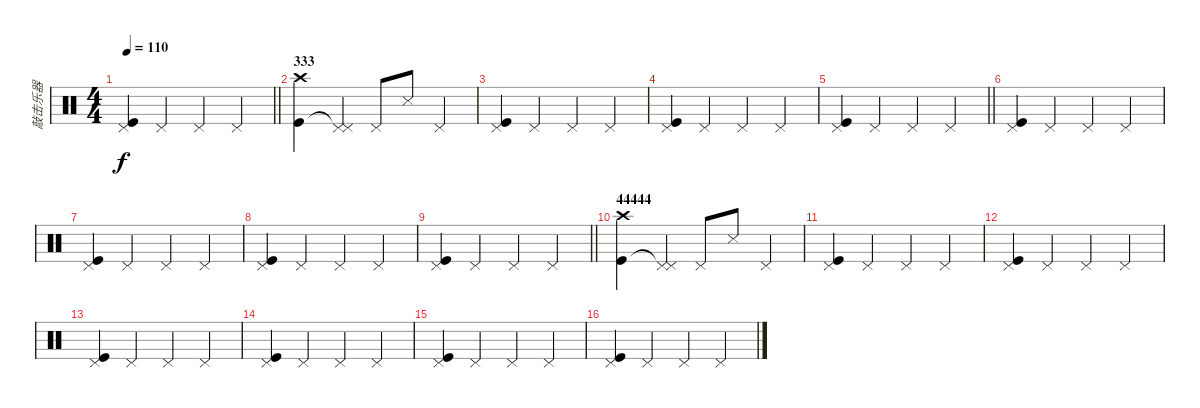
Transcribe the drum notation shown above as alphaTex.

\track ("敲击乐器" "敲击乐器") {instrument percussion}
\staff {score}
\articulation defaults
\ts (4 4)
\tempo 110
\clef neutral
\barLineRight lightlight
\ks c
("Pedal Hi-Hat (hit)" "Kick (hit)").4{dy f} "Pedal Hi-Hat (hit)".4 "Pedal Hi-Hat (hit)".4 "Pedal Hi-Hat (hit)".4 |
\section ("" "333")
("Crash high (hit)" "Kick (hit)").4 ("Pedal Hi-Hat (hit)" "Pedal Hi-Hat (hit)"{t}).4 "Pedal Hi-Hat (hit)".8 "Snare (side stick) 3".8 "Pedal Hi-Hat (hit)".4 |
("Pedal Hi-Hat (hit)" "Kick (hit)").4 "Pedal Hi-Hat (hit)".4 "Pedal Hi-Hat (hit)".4 "Pedal Hi-Hat (hit)".4 |
("Pedal Hi-Hat (hit)" "Kick (hit)").4 "Pedal Hi-Hat (hit)".4 "Pedal Hi-Hat (hit)".4 "Pedal Hi-Hat (hit)".4 |
\barLineRight lightlight
("Pedal Hi-Hat (hit)" "Kick (hit)").4 "Pedal Hi-Hat (hit)".4 "Pedal Hi-Hat (hit)".4 "Pedal Hi-Hat (hit)".4 |
\section ("" " ")
("Pedal Hi-Hat (hit)" "Kick (hit)").4 "Pedal Hi-Hat (hit)".4 "Pedal Hi-Hat (hit)".4 "Pedal Hi-Hat (hit)".4 |
("Pedal Hi-Hat (hit)" "Kick (hit)").4 "Pedal Hi-Hat (hit)".4 "Pedal Hi-Hat (hit)".4 "Pedal Hi-Hat (hit)".4 |
("Pedal Hi-Hat (hit)" "Kick (hit)").4 "Pedal Hi-Hat (hit)".4 "Pedal Hi-Hat (hit)".4 "Pedal Hi-Hat (hit)".4 |
\barLineRight lightlight
("Pedal Hi-Hat (hit)" "Kick (hit)").4 "Pedal Hi-Hat (hit)".4 "Pedal Hi-Hat (hit)".4 "Pedal Hi-Hat (hit)".4 |
\section ("" "44444")
("Crash high (hit)" "Kick (hit)").4 ("Pedal Hi-Hat (hit)" "Pedal Hi-Hat (hit)"{t}).4 "Pedal Hi-Hat (hit)".8 "Snare (side stick) 3".8 "Pedal Hi-Hat (hit)".4 |
("Pedal Hi-Hat (hit)" "Kick (hit)").4 "Pedal Hi-Hat (hit)".4 "Pedal Hi-Hat (hit)".4 "Pedal Hi-Hat (hit)".4 |
("Pedal Hi-Hat (hit)" "Kick (hit)").4 "Pedal Hi-Hat (hit)".4 "Pedal Hi-Hat (hit)".4 "Pedal Hi-Hat (hit)".4 |
("Pedal Hi-Hat (hit)" "Kick (hit)").4 "Pedal Hi-Hat (hit)".4 "Pedal Hi-Hat (hit)".4 "Pedal Hi-Hat (hit)".4 |
("Pedal Hi-Hat (hit)" "Kick (hit)").4 "Pedal Hi-Hat (hit)".4 "Pedal Hi-Hat (hit)".4 "Pedal Hi-Hat (hit)".4 |
("Pedal Hi-Hat (hit)" "Kick (hit)").4 "Pedal Hi-Hat (hit)".4 "Pedal Hi-Hat (hit)".4 "Pedal Hi-Hat (hit)".4 |
("Pedal Hi-Hat (hit)" "Kick (hit)").4 "Pedal Hi-Hat (hit)".4 "Pedal Hi-Hat (hit)".4 "Pedal Hi-Hat (hit)".4
